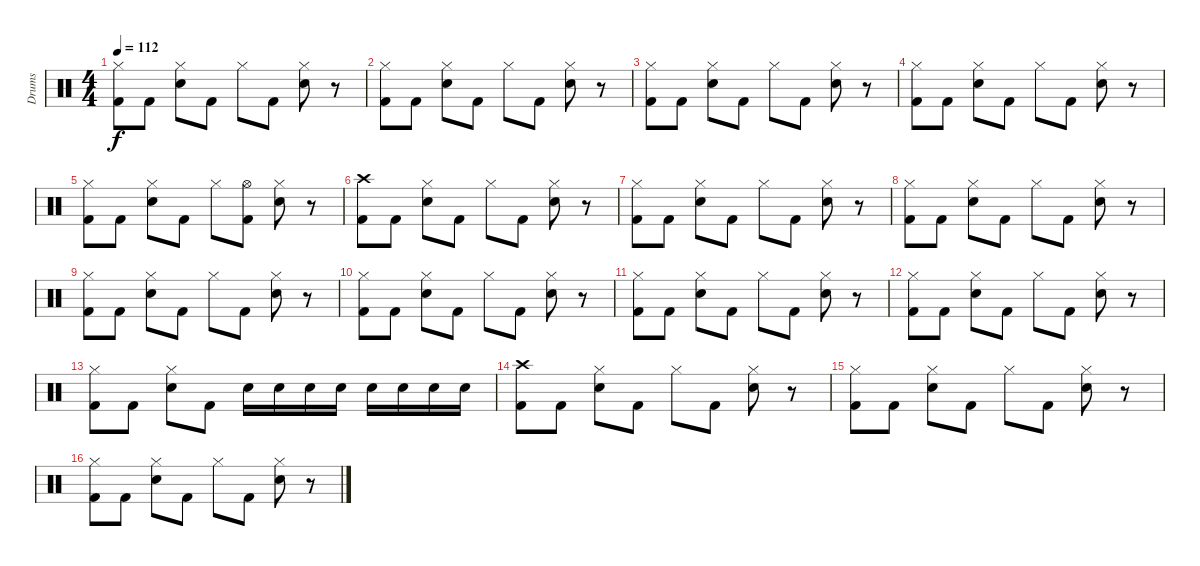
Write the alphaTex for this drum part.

\track ("Drums" "Drums") {instrument percussion}
\staff {score}
\articulation defaults
\ts (4 4)
\tempo 112
\clef neutral
\ks c
("Hi-Hat (closed)" "Kick (hit) 2").8{dy f} "Kick (hit) 2".8 ("Hi-Hat (closed)" "Snare (hit) 2").8 "Kick (hit) 2".8 "Hi-Hat (closed)".8 "Kick (hit) 2".8 ("Snare (hit) 2" "Hi-Hat (closed)").8 r.8 |
("Hi-Hat (closed)" "Kick (hit) 2").8 "Kick (hit) 2".8 ("Hi-Hat (closed)" "Snare (hit) 2").8 "Kick (hit) 2".8 "Hi-Hat (closed)".8 "Kick (hit) 2".8 ("Snare (hit) 2" "Hi-Hat (closed)").8 r.8 |
("Hi-Hat (closed)" "Kick (hit) 2").8 "Kick (hit) 2".8 ("Hi-Hat (closed)" "Snare (hit) 2").8 "Kick (hit) 2".8 "Hi-Hat (closed)".8 "Kick (hit) 2".8 ("Snare (hit) 2" "Hi-Hat (closed)").8 r.8 |
("Hi-Hat (closed)" "Kick (hit) 2").8 "Kick (hit) 2".8 ("Hi-Hat (closed)" "Snare (hit) 2").8 "Kick (hit) 2".8 "Hi-Hat (closed)".8 "Kick (hit) 2".8 ("Snare (hit) 2" "Hi-Hat (closed)").8 r.8 |
("Hi-Hat (closed)" "Kick (hit) 2").8 "Kick (hit) 2".8 ("Hi-Hat (closed)" "Snare (hit) 2").8 "Kick (hit) 2".8 "Hi-Hat (closed)".8 ("Hi-Hat (open)" "Kick (hit) 2").8 ("Snare (hit) 2" "Hi-Hat (closed)").8 r.8 |
("Crash high (hit)" "Kick (hit) 2").8 "Kick (hit) 2".8 ("Hi-Hat (closed)" "Snare (hit) 2").8 "Kick (hit) 2".8 "Hi-Hat (closed)".8 "Kick (hit) 2".8 ("Snare (hit) 2" "Hi-Hat (closed)").8 r.8 |
("Hi-Hat (closed)" "Kick (hit) 2").8 "Kick (hit) 2".8 ("Hi-Hat (closed)" "Snare (hit) 2").8 "Kick (hit) 2".8 "Hi-Hat (closed)".8 "Kick (hit) 2".8 ("Snare (hit) 2" "Hi-Hat (closed)").8 r.8 |
("Hi-Hat (closed)" "Kick (hit) 2").8 "Kick (hit) 2".8 ("Hi-Hat (closed)" "Snare (hit) 2").8 "Kick (hit) 2".8 "Hi-Hat (closed)".8 "Kick (hit) 2".8 ("Snare (hit) 2" "Hi-Hat (closed)").8 r.8 |
("Hi-Hat (closed)" "Kick (hit) 2").8 "Kick (hit) 2".8 ("Hi-Hat (closed)" "Snare (hit) 2").8 "Kick (hit) 2".8 "Hi-Hat (closed)".8 "Kick (hit) 2".8 ("Snare (hit) 2" "Hi-Hat (closed)").8 r.8 |
("Hi-Hat (closed)" "Kick (hit) 2").8 "Kick (hit) 2".8 ("Hi-Hat (closed)" "Snare (hit) 2").8 "Kick (hit) 2".8 "Hi-Hat (closed)".8 "Kick (hit) 2".8 ("Snare (hit) 2" "Hi-Hat (closed)").8 r.8 |
("Hi-Hat (closed)" "Kick (hit) 2").8 "Kick (hit) 2".8 ("Hi-Hat (closed)" "Snare (hit) 2").8 "Kick (hit) 2".8 "Hi-Hat (closed)".8 "Kick (hit) 2".8 ("Snare (hit) 2" "Hi-Hat (closed)").8 r.8 |
("Hi-Hat (closed)" "Kick (hit) 2").8 "Kick (hit) 2".8 ("Hi-Hat (closed)" "Snare (hit) 2").8 "Kick (hit) 2".8 "Hi-Hat (closed)".8 "Kick (hit) 2".8 ("Snare (hit) 2" "Hi-Hat (closed)").8 r.8 |
("Hi-Hat (closed)" "Kick (hit) 2").8 "Kick (hit) 2".8 ("Hi-Hat (closed)" "Snare (hit) 2").8 "Kick (hit) 2".8 "Snare (hit) 2".16 "Snare (hit) 2".16 "Snare (hit) 2".16 "Snare (hit) 2".16 "Snare (hit) 2".16 "Snare (hit) 2".16 "Snare (hit) 2".16 "Snare (hit) 2".16 |
("Crash high (hit)" "Kick (hit) 2").8 "Kick (hit) 2".8 ("Hi-Hat (closed)" "Snare (hit) 2").8 "Kick (hit) 2".8 "Hi-Hat (closed)".8 "Kick (hit) 2".8 ("Snare (hit) 2" "Hi-Hat (closed)").8 r.8 |
("Hi-Hat (closed)" "Kick (hit) 2").8 "Kick (hit) 2".8 ("Hi-Hat (closed)" "Snare (hit) 2").8 "Kick (hit) 2".8 "Hi-Hat (closed)".8 "Kick (hit) 2".8 ("Snare (hit) 2" "Hi-Hat (closed)").8 r.8 |
("Hi-Hat (closed)" "Kick (hit) 2").8 "Kick (hit) 2".8 ("Hi-Hat (closed)" "Snare (hit) 2").8 "Kick (hit) 2".8 "Hi-Hat (closed)".8 "Kick (hit) 2".8 ("Snare (hit) 2" "Hi-Hat (closed)").8 r.8
